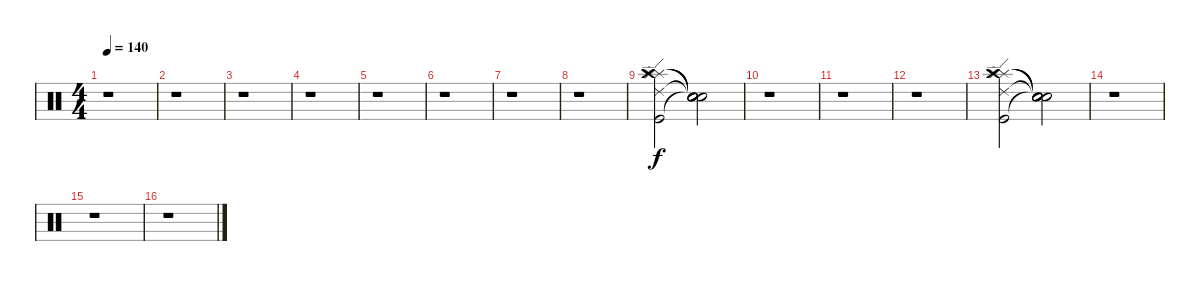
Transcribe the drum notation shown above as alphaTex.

\track "" {instrument percussion}
\staff {score}
\articulation defaults
\ts (4 4)
\tempo 140
\clef neutral
\ks c
r.1{dy f} |
r.1 |
r.1 |
r.1 |
r.1 |
r.1 |
r.1 |
r.1 |
("Kick (hit)" "Splash (hit)" "Splash (hit)" "Ride (edge) 2" "Crash high (hit)").2 ("Snare (hit)"{t} "Snare (hit)"{t} "Snare (hit)"{t} "Snare (hit)"{t} "Snare (hit)"{t}).2 |
r.1 |
r.1 |
r.1 |
("Kick (hit)" "Splash (hit)" "Splash (hit)" "Ride (edge) 2" "Crash high (hit)").2 ("Snare (hit)"{t} "Snare (hit)"{t} "Snare (hit)"{t} "Snare (hit)"{t} "Snare (hit)"{t}).2 |
r.1 |
r.1 |
r.1
